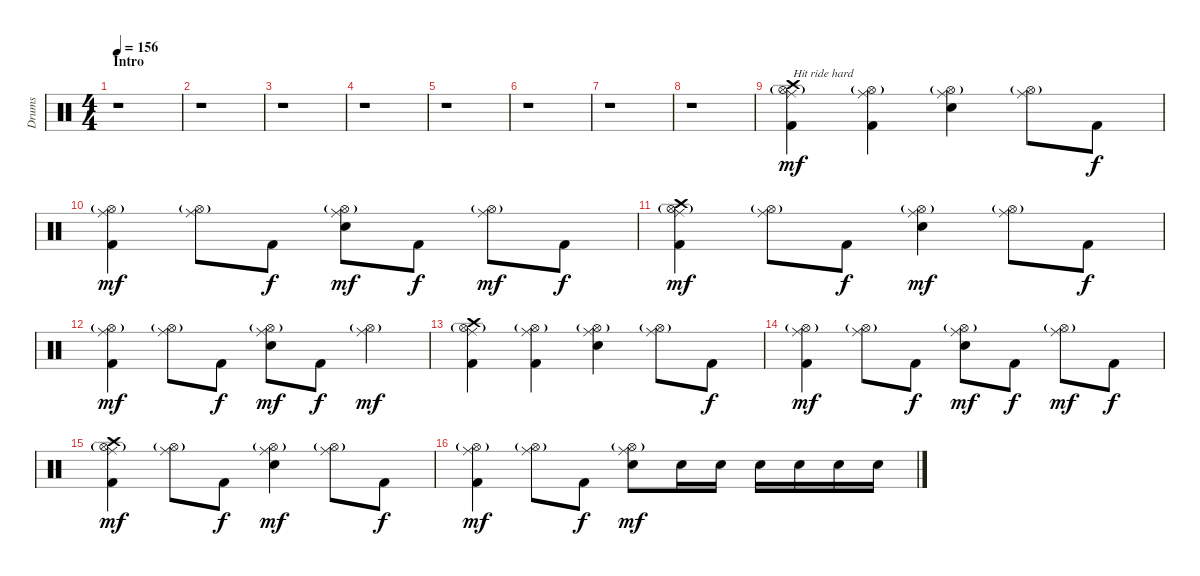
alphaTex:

\track ("Drums" "Drums") {instrument percussion}
\staff {score}
\articulation defaults
\ts (4 4)
\section ("" "Intro")
\tempo 156
\clef neutral
\ks c
r.1{dy mf} |
r.1 |
r.1 |
r.1 |
r.1 |
r.1 |
r.1 |
r.1 |
("Crash high (hit)" "Ride (middle)" "Hi-Hat (open)"{g} "Kick (hit) 2").4{txt "Hit ride hard"} ("Ride (middle)" "Hi-Hat (open)"{g} "Kick (hit) 2").4 ("Ride (middle)" "Hi-Hat (open)"{g} "Electric Snare (hit)").4 ("Ride (middle)" "Hi-Hat (open)"{g}).8 "Kick (hit) 2".8{dy f} |
("Ride (middle)" "Hi-Hat (open)"{g} "Kick (hit) 2").4{dy mf} ("Ride (middle)" "Hi-Hat (open)"{g}).8 "Kick (hit) 2".8{dy f} ("Ride (middle)" "Hi-Hat (open)"{g} "Electric Snare (hit)").8{dy mf} "Kick (hit) 2".8{dy f} ("Ride (middle)" "Hi-Hat (open)"{g}).8{dy mf} "Kick (hit) 2".8{dy f} |
("Crash high (hit)" "Ride (middle)" "Hi-Hat (open)"{g} "Kick (hit) 2").4{dy mf} ("Ride (middle)" "Hi-Hat (open)"{g}).8 "Kick (hit) 2".8{dy f} ("Ride (middle)" "Hi-Hat (open)"{g} "Electric Snare (hit)").4{dy mf} ("Ride (middle)" "Hi-Hat (open)"{g}).8 "Kick (hit) 2".8{dy f} |
("Ride (middle)" "Hi-Hat (open)"{g} "Kick (hit) 2").4{dy mf} ("Ride (middle)" "Hi-Hat (open)"{g}).8 "Kick (hit) 2".8{dy f} ("Ride (middle)" "Hi-Hat (open)"{g} "Electric Snare (hit)").8{dy mf} "Kick (hit) 2".8{dy f} ("Ride (middle)" "Hi-Hat (open)"{g}).4{dy mf} |
("Crash high (hit)" "Ride (middle)" "Hi-Hat (open)"{g} "Kick (hit) 2").4 ("Ride (middle)" "Hi-Hat (open)"{g} "Kick (hit) 2").4 ("Ride (middle)" "Hi-Hat (open)"{g} "Electric Snare (hit)").4 ("Ride (middle)" "Hi-Hat (open)"{g}).8 "Kick (hit) 2".8{dy f} |
("Ride (middle)" "Hi-Hat (open)"{g} "Kick (hit) 2").4{dy mf} ("Ride (middle)" "Hi-Hat (open)"{g}).8 "Kick (hit) 2".8{dy f} ("Ride (middle)" "Hi-Hat (open)"{g} "Electric Snare (hit)").8{dy mf} "Kick (hit) 2".8{dy f} ("Ride (middle)" "Hi-Hat (open)"{g}).8{dy mf} "Kick (hit) 2".8{dy f} |
("Crash high (hit)" "Ride (middle)" "Hi-Hat (open)"{g} "Kick (hit) 2").4{dy mf} ("Ride (middle)" "Hi-Hat (open)"{g}).8 "Kick (hit) 2".8{dy f} ("Ride (middle)" "Hi-Hat (open)"{g} "Electric Snare (hit)").4{dy mf} ("Ride (middle)" "Hi-Hat (open)"{g}).8 "Kick (hit) 2".8{dy f} |
("Ride (middle)" "Hi-Hat (open)"{g} "Kick (hit) 2").4{dy mf} ("Ride (middle)" "Hi-Hat (open)"{g}).8 "Kick (hit) 2".8{dy f} ("Ride (middle)" "Hi-Hat (open)"{g} "Electric Snare (hit)").8{dy mf} "Electric Snare (hit)".16 "Electric Snare (hit)".16 "Electric Snare (hit)".16 "Electric Snare (hit)".16 "Electric Snare (hit)".16 "Electric Snare (hit)".16
